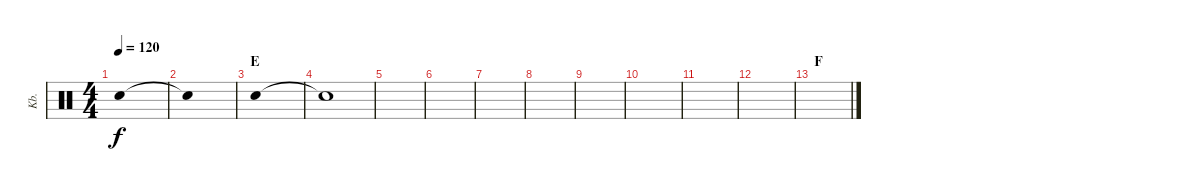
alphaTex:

\track ("Kb." "Kb.") {instrument percussion}
\staff {score}
\articulation defaults
\ts (4 4)
\tempo 120
\clef neutral
\ks c "Metronome (bell)".1{dy f}
|
"Metronome (bell)"{t}.1 |
\section ("" "E")
"Metronome (bell)".1 |
"Snare (hit)"{t}.1 |
|
|
|
|
|
|
|
|
\section ("" "F")
